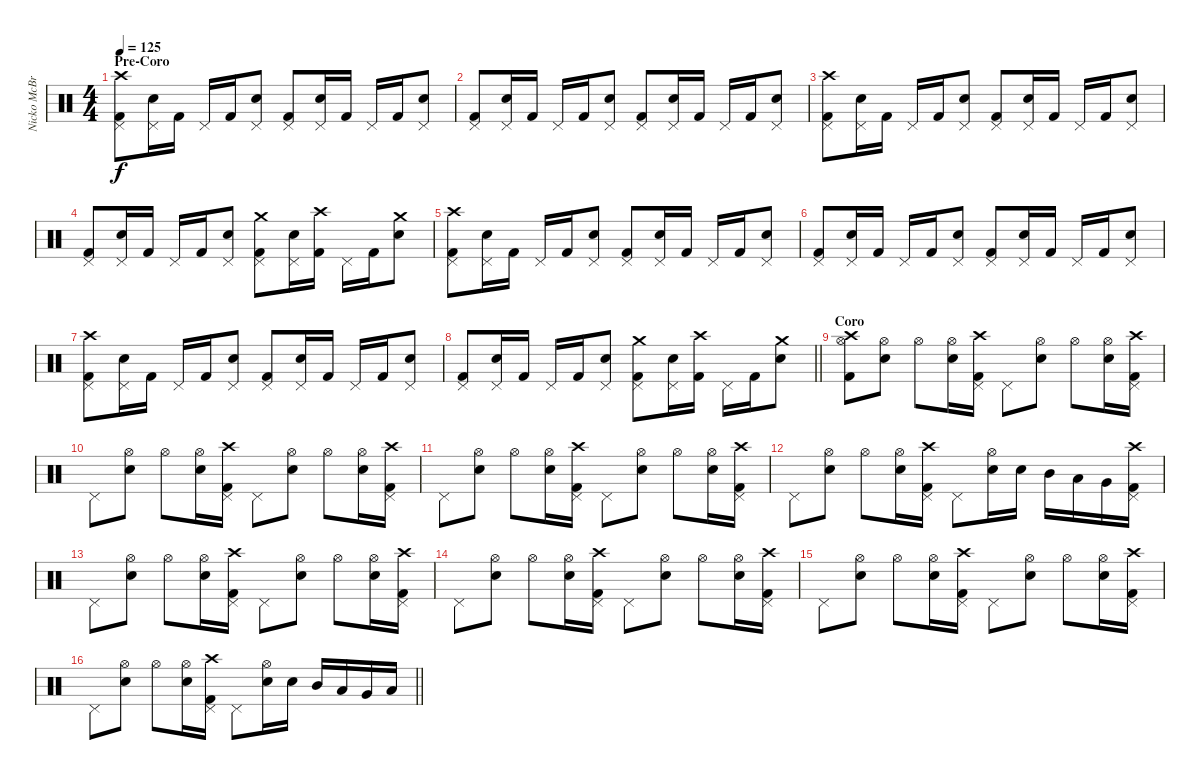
\track ("Nicko McBrain" "Nicko McBr") {instrument percussion}
\staff {score}
\articulation defaults
\ts (4 4)
\section ("" "Pre-Coro")
\tempo 125
\clef neutral
\ks c
("Kick (hit) 2" "Pedal Hi-Hat (hit)" "Crash high (hit)").8{dy f} ("Snare (hit) 2" "Pedal Hi-Hat (hit)").16 "Kick (hit) 2".16 "Pedal Hi-Hat (hit)".16 "Kick (hit) 2".16 ("Snare (hit) 2" "Pedal Hi-Hat (hit)").8 ("Kick (hit) 2" "Pedal Hi-Hat (hit)").8 ("Snare (hit) 2" "Pedal Hi-Hat (hit)").16 "Kick (hit) 2".16 "Pedal Hi-Hat (hit)".16 "Kick (hit) 2".16 ("Snare (hit) 2" "Pedal Hi-Hat (hit)").8 |
("Kick (hit) 2" "Pedal Hi-Hat (hit)").8 ("Snare (hit) 2" "Pedal Hi-Hat (hit)").16 "Kick (hit) 2".16 "Pedal Hi-Hat (hit)".16 "Kick (hit) 2".16 ("Snare (hit) 2" "Pedal Hi-Hat (hit)").8 ("Kick (hit) 2" "Pedal Hi-Hat (hit)").8 ("Snare (hit) 2" "Pedal Hi-Hat (hit)").16 "Kick (hit) 2".16 "Pedal Hi-Hat (hit)".16 "Kick (hit) 2".16 ("Snare (hit) 2" "Pedal Hi-Hat (hit)").8 |
("Kick (hit) 2" "Pedal Hi-Hat (hit)" "Crash high (hit)").8 ("Snare (hit) 2" "Pedal Hi-Hat (hit)").16 "Kick (hit) 2".16 "Pedal Hi-Hat (hit)".16 "Kick (hit) 2".16 ("Snare (hit) 2" "Pedal Hi-Hat (hit)").8 ("Kick (hit) 2" "Pedal Hi-Hat (hit)").8 ("Snare (hit) 2" "Pedal Hi-Hat (hit)").16 "Kick (hit) 2".16 "Pedal Hi-Hat (hit)".16 "Kick (hit) 2".16 ("Snare (hit) 2" "Pedal Hi-Hat (hit)").8 |
("Kick (hit) 2" "Pedal Hi-Hat (hit)").8 ("Snare (hit) 2" "Pedal Hi-Hat (hit)").16 "Kick (hit) 2".16 "Pedal Hi-Hat (hit)".16 "Kick (hit) 2".16 ("Snare (hit) 2" "Pedal Hi-Hat (hit)").8 ("Kick (hit) 2" "Pedal Hi-Hat (hit)" "Crash medium (hit)").8 ("Snare (hit) 2" "Pedal Hi-Hat (hit)").16 ("Kick (hit) 2" "Crash high (hit)").16 "Pedal Hi-Hat (hit)".16 "Kick (hit) 2".16 ("Snare (hit) 2" "Crash medium (hit)").8 |
("Kick (hit) 2" "Pedal Hi-Hat (hit)" "Crash high (hit)").8 ("Snare (hit) 2" "Pedal Hi-Hat (hit)").16 "Kick (hit) 2".16 "Pedal Hi-Hat (hit)".16 "Kick (hit) 2".16 ("Snare (hit) 2" "Pedal Hi-Hat (hit)").8 ("Kick (hit) 2" "Pedal Hi-Hat (hit)").8 ("Snare (hit) 2" "Pedal Hi-Hat (hit)").16 "Kick (hit) 2".16 "Pedal Hi-Hat (hit)".16 "Kick (hit) 2".16 ("Snare (hit) 2" "Pedal Hi-Hat (hit)").8 |
("Kick (hit) 2" "Pedal Hi-Hat (hit)").8 ("Snare (hit) 2" "Pedal Hi-Hat (hit)").16 "Kick (hit) 2".16 "Pedal Hi-Hat (hit)".16 "Kick (hit) 2".16 ("Snare (hit) 2" "Pedal Hi-Hat (hit)").8 ("Kick (hit) 2" "Pedal Hi-Hat (hit)").8 ("Snare (hit) 2" "Pedal Hi-Hat (hit)").16 "Kick (hit) 2".16 "Pedal Hi-Hat (hit)".16 "Kick (hit) 2".16 ("Snare (hit) 2" "Pedal Hi-Hat (hit)").8 |
("Kick (hit) 2" "Pedal Hi-Hat (hit)" "Crash high (hit)").8 ("Snare (hit) 2" "Pedal Hi-Hat (hit)").16 "Kick (hit) 2".16 "Pedal Hi-Hat (hit)".16 "Kick (hit) 2".16 ("Snare (hit) 2" "Pedal Hi-Hat (hit)").8 ("Kick (hit) 2" "Pedal Hi-Hat (hit)").8 ("Snare (hit) 2" "Pedal Hi-Hat (hit)").16 "Kick (hit) 2".16 "Pedal Hi-Hat (hit)".16 "Kick (hit) 2".16 ("Snare (hit) 2" "Pedal Hi-Hat (hit)").8 |
\barLineRight lightlight
("Kick (hit) 2" "Pedal Hi-Hat (hit)").8 ("Snare (hit) 2" "Pedal Hi-Hat (hit)").16 "Kick (hit) 2".16 "Pedal Hi-Hat (hit)".16 "Kick (hit) 2".16 ("Snare (hit) 2" "Pedal Hi-Hat (hit)").8 ("Kick (hit) 2" "Pedal Hi-Hat (hit)" "Crash medium (hit)").8 ("Snare (hit) 2" "Pedal Hi-Hat (hit)").16 ("Kick (hit) 2" "Crash high (hit)").16 "Pedal Hi-Hat (hit)".16 "Kick (hit) 2".16 ("Snare (hit) 2" "Crash medium (hit)").8 |
\section ("" "Coro")
("Kick (hit) 2" "Hi-Hat (open)" "Crash high (hit)").8 ("Snare (hit) 2" "Hi-Hat (open)").8 "Hi-Hat (open)".8 ("Snare (hit) 2" "Hi-Hat (open)").16 ("Kick (hit) 2" "Pedal Hi-Hat (hit)" "Crash high (hit)").16 "Pedal Hi-Hat (hit)".8 ("Snare (hit) 2" "Hi-Hat (open)").8 "Hi-Hat (open)".8 ("Snare (hit) 2" "Hi-Hat (open)").16 ("Kick (hit) 2" "Pedal Hi-Hat (hit)" "Crash high (hit)").16 |
"Pedal Hi-Hat (hit)".8 ("Snare (hit) 2" "Hi-Hat (open)").8 "Hi-Hat (open)".8 ("Snare (hit) 2" "Hi-Hat (open)").16 ("Kick (hit) 2" "Pedal Hi-Hat (hit)" "Crash high (hit)").16 "Pedal Hi-Hat (hit)".8 ("Snare (hit) 2" "Hi-Hat (open)").8 "Hi-Hat (open)".8 ("Snare (hit) 2" "Hi-Hat (open)").16 ("Kick (hit) 2" "Pedal Hi-Hat (hit)" "Crash high (hit)").16 |
"Pedal Hi-Hat (hit)".8 ("Snare (hit) 2" "Hi-Hat (open)").8 "Hi-Hat (open)".8 ("Snare (hit) 2" "Hi-Hat (open)").16 ("Kick (hit) 2" "Pedal Hi-Hat (hit)" "Crash high (hit)").16 "Pedal Hi-Hat (hit)".8 ("Snare (hit) 2" "Hi-Hat (open)").8 "Hi-Hat (open)".8 ("Snare (hit) 2" "Hi-Hat (open)").16 ("Kick (hit) 2" "Pedal Hi-Hat (hit)" "Crash high (hit)").16 |
"Pedal Hi-Hat (hit)".8 ("Snare (hit) 2" "Hi-Hat (open)").8 "Hi-Hat (open)".8 ("Snare (hit) 2" "Hi-Hat (open)").16 ("Kick (hit) 2" "Pedal Hi-Hat (hit)" "Crash high (hit)").16 "Pedal Hi-Hat (hit)".8 ("Snare (hit) 2" "Hi-Hat (open)").16 "Snare (hit) 2".16 "Mid Tom (hit)".16 "Low Tom (hit)".16 "Very Low Tom (hit)".16 ("Kick (hit) 2" "Pedal Hi-Hat (hit)" "Crash high (hit)").16 |
"Pedal Hi-Hat (hit)".8 ("Snare (hit) 2" "Hi-Hat (open)").8 "Hi-Hat (open)".8 ("Snare (hit) 2" "Hi-Hat (open)").16 ("Kick (hit) 2" "Pedal Hi-Hat (hit)" "Crash high (hit)").16 "Pedal Hi-Hat (hit)".8 ("Snare (hit) 2" "Hi-Hat (open)").8 "Hi-Hat (open)".8 ("Snare (hit) 2" "Hi-Hat (open)").16 ("Kick (hit) 2" "Pedal Hi-Hat (hit)" "Crash high (hit)").16 |
"Pedal Hi-Hat (hit)".8 ("Snare (hit) 2" "Hi-Hat (open)").8 "Hi-Hat (open)".8 ("Snare (hit) 2" "Hi-Hat (open)").16 ("Kick (hit) 2" "Pedal Hi-Hat (hit)" "Crash high (hit)").16 "Pedal Hi-Hat (hit)".8 ("Snare (hit) 2" "Hi-Hat (open)").8 "Hi-Hat (open)".8 ("Snare (hit) 2" "Hi-Hat (open)").16 ("Kick (hit) 2" "Pedal Hi-Hat (hit)" "Crash high (hit)").16 |
"Pedal Hi-Hat (hit)".8 ("Snare (hit) 2" "Hi-Hat (open)").8 "Hi-Hat (open)".8 ("Snare (hit) 2" "Hi-Hat (open)").16 ("Kick (hit) 2" "Pedal Hi-Hat (hit)" "Crash high (hit)").16 "Pedal Hi-Hat (hit)".8 ("Snare (hit) 2" "Hi-Hat (open)").8 "Hi-Hat (open)".8 ("Snare (hit) 2" "Hi-Hat (open)").16 ("Kick (hit) 2" "Pedal Hi-Hat (hit)" "Crash high (hit)").16 |
\barLineRight lightlight "Pedal Hi-Hat (hit)".8
("Snare (hit) 2" "Hi-Hat (open)").8 "Hi-Hat (open)".8 ("Snare (hit) 2" "Hi-Hat (open)").16 ("Kick (hit) 2" "Pedal Hi-Hat (hit)" "Crash high (hit)").16 "Pedal Hi-Hat (hit)".8 ("Snare (hit) 2" "Hi-Hat (open)").16 "Snare (hit) 2".16 "Mid Tom (hit)".16 "Low Tom (hit)".16 "Very Low Tom (hit)".16 "Low Floor Tom (hit)".16
